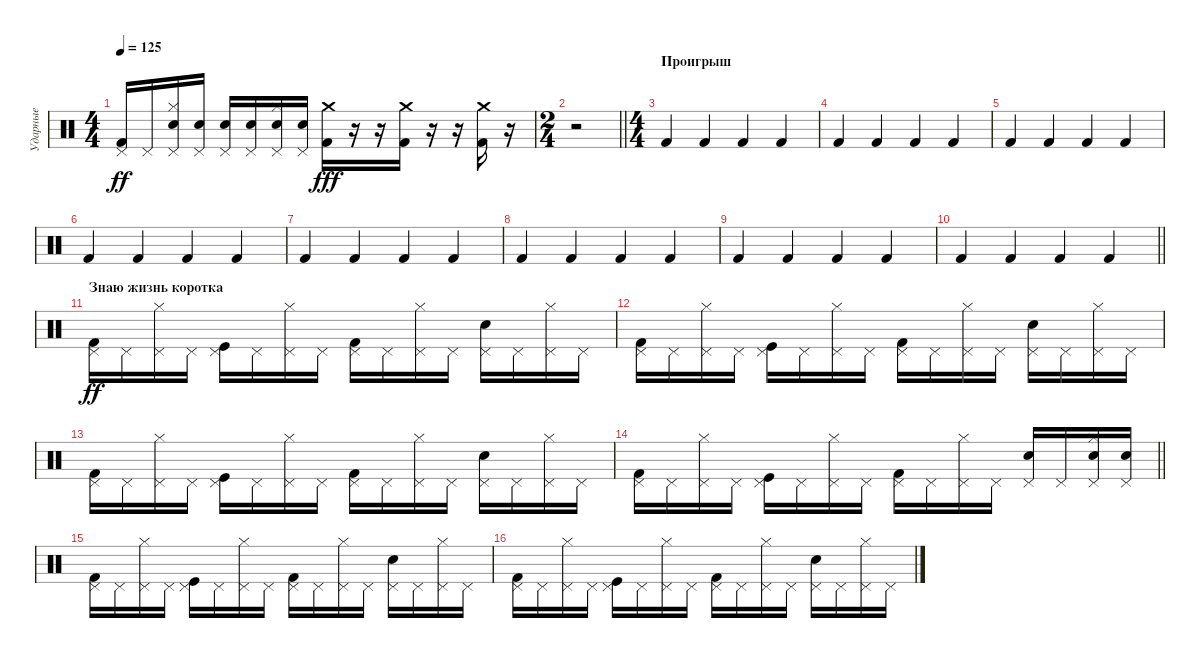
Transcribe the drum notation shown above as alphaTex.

\track ("Ударные" "Ударные") {instrument percussion}
\staff {score}
\articulation defaults
\ts (4 4)
\tempo 125
\clef neutral
\ks c
("Kick (hit) 2" "Pedal Hi-Hat (hit)").16{dy ff} "Pedal Hi-Hat (hit)".16 ("Hi-Hat (closed)" "Electric Snare (hit)" "Pedal Hi-Hat (hit)").16 ("Electric Snare (hit)" "Pedal Hi-Hat (hit)").16 ("Electric Snare (hit)" "Pedal Hi-Hat (hit)").16 ("Electric Snare (hit)" "Pedal Hi-Hat (hit)").16 ("Hi-Hat (closed)" "Electric Snare (hit)" "Pedal Hi-Hat (hit)").16 ("Electric Snare (hit)" "Pedal Hi-Hat (hit)").16 ("Crash medium (hit)" "Kick (hit) 2").16{dy fff} r.16 r.16 ("Crash medium (hit)" "Kick (hit) 2").16 r.16 r.16 ("Crash medium (hit)" "Kick (hit) 2").16 r.16 |
\ts (2 4)
\barLineRight lightlight
r.2 |
\ts (4 4)
\section ("" "Проигрыш")
"Kick (hit) 2".4 "Kick (hit) 2".4 "Kick (hit) 2".4 "Kick (hit) 2".4 |
"Kick (hit) 2".4 "Kick (hit) 2".4 "Kick (hit) 2".4 "Kick (hit) 2".4 |
"Kick (hit) 2".4 "Kick (hit) 2".4 "Kick (hit) 2".4 "Kick (hit) 2".4 |
"Kick (hit) 2".4 "Kick (hit) 2".4 "Kick (hit) 2".4 "Kick (hit) 2".4 |
"Kick (hit) 2".4 "Kick (hit) 2".4 "Kick (hit) 2".4 "Kick (hit) 2".4 |
"Kick (hit) 2".4 "Kick (hit) 2".4 "Kick (hit) 2".4 "Kick (hit) 2".4 |
"Kick (hit) 2".4 "Kick (hit) 2".4 "Kick (hit) 2".4 "Kick (hit) 2".4 |
\barLineRight lightlight "Kick (hit) 2".4 "Kick (hit) 2".4 "Kick (hit) 2".4 "Kick (hit) 2".4
|
\section ("" "Знаю жизнь коротка")
("Kick (hit) 2" "Pedal Hi-Hat (hit)").16{dy ff} "Pedal Hi-Hat (hit)".16 ("Hi-Hat (closed)" "Pedal Hi-Hat (hit)").16 "Pedal Hi-Hat (hit)".16 ("Kick (hit)" "Pedal Hi-Hat (hit)").16 "Pedal Hi-Hat (hit)".16 ("Hi-Hat (closed)" "Pedal Hi-Hat (hit)").16 "Pedal Hi-Hat (hit)".16 ("Kick (hit) 2" "Pedal Hi-Hat (hit)").16 "Pedal Hi-Hat (hit)".16 ("Hi-Hat (closed)" "Pedal Hi-Hat (hit)").16 "Pedal Hi-Hat (hit)".16 ("Snare (hit) 2" "Pedal Hi-Hat (hit)").16 "Pedal Hi-Hat (hit)".16 ("Hi-Hat (closed)" "Pedal Hi-Hat (hit)").16 "Pedal Hi-Hat (hit)".16 |
("Kick (hit) 2" "Pedal Hi-Hat (hit)").16 "Pedal Hi-Hat (hit)".16 ("Hi-Hat (closed)" "Pedal Hi-Hat (hit)").16 "Pedal Hi-Hat (hit)".16 ("Kick (hit)" "Pedal Hi-Hat (hit)").16 "Pedal Hi-Hat (hit)".16 ("Hi-Hat (closed)" "Pedal Hi-Hat (hit)").16 "Pedal Hi-Hat (hit)".16 ("Kick (hit) 2" "Pedal Hi-Hat (hit)").16 "Pedal Hi-Hat (hit)".16 ("Hi-Hat (closed)" "Pedal Hi-Hat (hit)").16 "Pedal Hi-Hat (hit)".16 ("Snare (hit) 2" "Pedal Hi-Hat (hit)").16 "Pedal Hi-Hat (hit)".16 ("Hi-Hat (closed)" "Pedal Hi-Hat (hit)").16 "Pedal Hi-Hat (hit)".16 |
("Kick (hit) 2" "Pedal Hi-Hat (hit)").16 "Pedal Hi-Hat (hit)".16 ("Hi-Hat (closed)" "Pedal Hi-Hat (hit)").16 "Pedal Hi-Hat (hit)".16 ("Kick (hit)" "Pedal Hi-Hat (hit)").16 "Pedal Hi-Hat (hit)".16 ("Hi-Hat (closed)" "Pedal Hi-Hat (hit)").16 "Pedal Hi-Hat (hit)".16 ("Kick (hit) 2" "Pedal Hi-Hat (hit)").16 "Pedal Hi-Hat (hit)".16 ("Hi-Hat (closed)" "Pedal Hi-Hat (hit)").16 "Pedal Hi-Hat (hit)".16 ("Snare (hit) 2" "Pedal Hi-Hat (hit)").16 "Pedal Hi-Hat (hit)".16 ("Hi-Hat (closed)" "Pedal Hi-Hat (hit)").16 "Pedal Hi-Hat (hit)".16 |
\barLineRight lightlight
("Kick (hit) 2" "Pedal Hi-Hat (hit)").16 "Pedal Hi-Hat (hit)".16 ("Hi-Hat (closed)" "Pedal Hi-Hat (hit)").16 "Pedal Hi-Hat (hit)".16 ("Kick (hit)" "Pedal Hi-Hat (hit)").16 "Pedal Hi-Hat (hit)".16 ("Hi-Hat (closed)" "Pedal Hi-Hat (hit)").16 "Pedal Hi-Hat (hit)".16 ("Kick (hit) 2" "Pedal Hi-Hat (hit)").16 "Pedal Hi-Hat (hit)".16 ("Hi-Hat (closed)" "Pedal Hi-Hat (hit)").16 "Pedal Hi-Hat (hit)".16 ("Snare (hit) 2" "Pedal Hi-Hat (hit)").16 "Pedal Hi-Hat (hit)".16 ("Hi-Hat (closed)" "Snare (hit) 2" "Pedal Hi-Hat (hit)").16 ("Snare (hit) 2" "Pedal Hi-Hat (hit)").16 |
("Kick (hit) 2" "Pedal Hi-Hat (hit)").16 "Pedal Hi-Hat (hit)".16 ("Hi-Hat (closed)" "Pedal Hi-Hat (hit)").16 "Pedal Hi-Hat (hit)".16 ("Kick (hit)" "Pedal Hi-Hat (hit)").16 "Pedal Hi-Hat (hit)".16 ("Hi-Hat (closed)" "Pedal Hi-Hat (hit)").16 "Pedal Hi-Hat (hit)".16 ("Kick (hit) 2" "Pedal Hi-Hat (hit)").16 "Pedal Hi-Hat (hit)".16 ("Hi-Hat (closed)" "Pedal Hi-Hat (hit)").16 "Pedal Hi-Hat (hit)".16 ("Snare (hit) 2" "Pedal Hi-Hat (hit)").16 "Pedal Hi-Hat (hit)".16 ("Hi-Hat (closed)" "Pedal Hi-Hat (hit)").16 "Pedal Hi-Hat (hit)".16 |
("Kick (hit) 2" "Pedal Hi-Hat (hit)").16 "Pedal Hi-Hat (hit)".16 ("Hi-Hat (closed)" "Pedal Hi-Hat (hit)").16 "Pedal Hi-Hat (hit)".16 ("Kick (hit)" "Pedal Hi-Hat (hit)").16 "Pedal Hi-Hat (hit)".16 ("Hi-Hat (closed)" "Pedal Hi-Hat (hit)").16 "Pedal Hi-Hat (hit)".16 ("Kick (hit) 2" "Pedal Hi-Hat (hit)").16 "Pedal Hi-Hat (hit)".16 ("Hi-Hat (closed)" "Pedal Hi-Hat (hit)").16 "Pedal Hi-Hat (hit)".16 ("Snare (hit) 2" "Pedal Hi-Hat (hit)").16 "Pedal Hi-Hat (hit)".16 ("Hi-Hat (closed)" "Pedal Hi-Hat (hit)").16 "Pedal Hi-Hat (hit)".16
